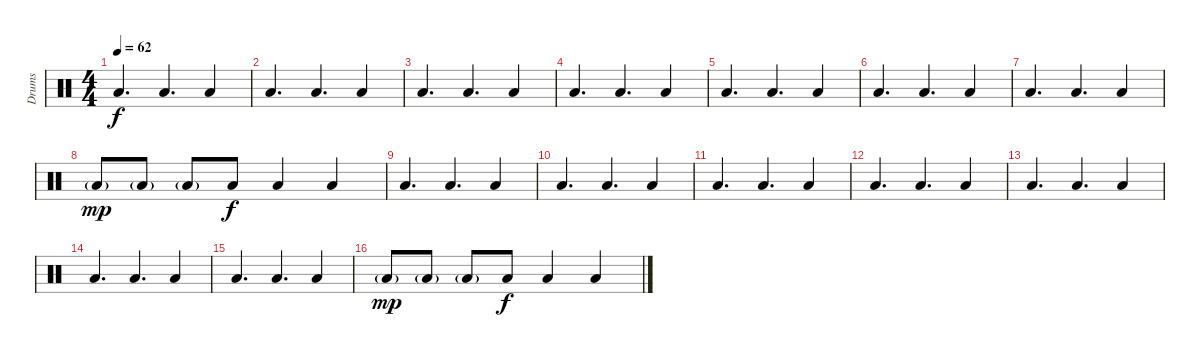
\track ("Drums" "Drums") {instrument percussion}
\staff {score}
\articulation defaults
\ts (4 4)
\tempo 62
\clef neutral
\ks c "Low Floor Tom (hit)".4{d dy f} "Low Floor Tom (hit)".4{d} "Low Floor Tom (hit)".4
|
"Low Floor Tom (hit)".4{d} "Low Floor Tom (hit)".4{d} "Low Floor Tom (hit)".4 |
"Low Floor Tom (hit)".4{d} "Low Floor Tom (hit)".4{d} "Low Floor Tom (hit)".4 |
"Low Floor Tom (hit)".4{d} "Low Floor Tom (hit)".4{d} "Low Floor Tom (hit)".4 |
"Low Floor Tom (hit)".4{d} "Low Floor Tom (hit)".4{d} "Low Floor Tom (hit)".4 |
"Low Floor Tom (hit)".4{d} "Low Floor Tom (hit)".4{d} "Low Floor Tom (hit)".4 |
"Low Floor Tom (hit)".4{d} "Low Floor Tom (hit)".4{d} "Low Floor Tom (hit)".4 |
"Low Floor Tom (hit)"{g}.8{dy mp} "Low Floor Tom (hit)"{g}.8 "Low Floor Tom (hit)"{g}.8 "Low Floor Tom (hit)".8{dy f} "Low Floor Tom (hit)".4 "Low Floor Tom (hit)".4 |
"Low Floor Tom (hit)".4{d} "Low Floor Tom (hit)".4{d} "Low Floor Tom (hit)".4 |
"Low Floor Tom (hit)".4{d} "Low Floor Tom (hit)".4{d} "Low Floor Tom (hit)".4 |
"Low Floor Tom (hit)".4{d} "Low Floor Tom (hit)".4{d} "Low Floor Tom (hit)".4 |
"Low Floor Tom (hit)".4{d} "Low Floor Tom (hit)".4{d} "Low Floor Tom (hit)".4 |
"Low Floor Tom (hit)".4{d} "Low Floor Tom (hit)".4{d} "Low Floor Tom (hit)".4 |
"Low Floor Tom (hit)".4{d} "Low Floor Tom (hit)".4{d} "Low Floor Tom (hit)".4 |
"Low Floor Tom (hit)".4{d} "Low Floor Tom (hit)".4{d} "Low Floor Tom (hit)".4 |
"Low Floor Tom (hit)"{g}.8{dy mp} "Low Floor Tom (hit)"{g}.8 "Low Floor Tom (hit)"{g}.8 "Low Floor Tom (hit)".8{dy f} "Low Floor Tom (hit)".4 "Low Floor Tom (hit)".4
